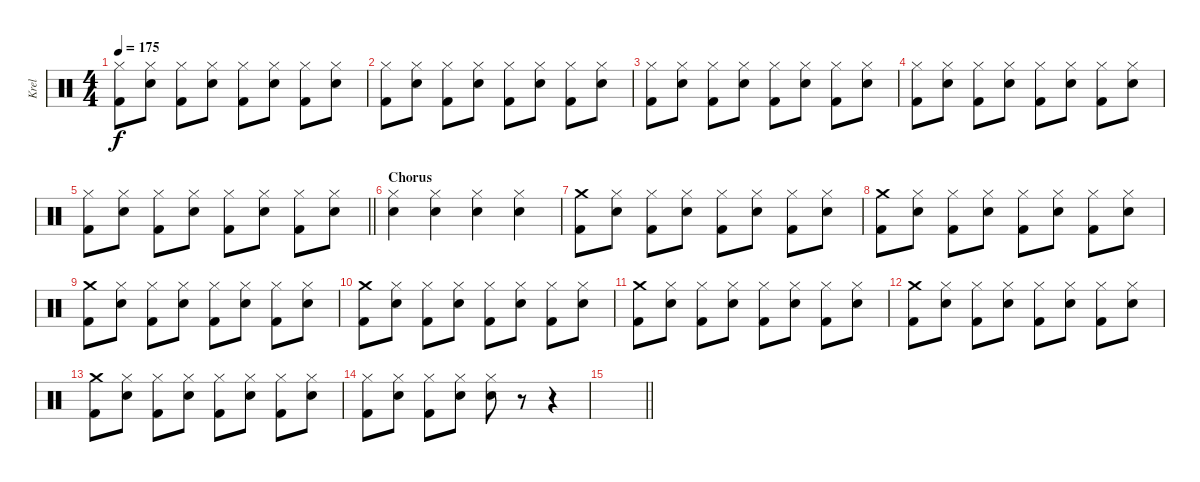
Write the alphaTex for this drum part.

\track ("Krel" "Krel") {instrument percussion}
\staff {score}
\articulation defaults
\ts (4 4)
\tempo 175
\clef neutral
\ks c
("Hi-Hat (closed)" "Kick (hit) 2").8{dy f} ("Hi-Hat (closed)" "Snare (hit) 2").8 ("Hi-Hat (closed)" "Kick (hit) 2").8 ("Hi-Hat (closed)" "Snare (hit) 2").8 ("Hi-Hat (closed)" "Kick (hit) 2").8 ("Hi-Hat (closed)" "Snare (hit) 2").8 ("Hi-Hat (closed)" "Kick (hit) 2").8 ("Hi-Hat (closed)" "Snare (hit) 2").8 |
("Hi-Hat (closed)" "Kick (hit) 2").8 ("Hi-Hat (closed)" "Snare (hit) 2").8 ("Hi-Hat (closed)" "Kick (hit) 2").8 ("Hi-Hat (closed)" "Snare (hit) 2").8 ("Hi-Hat (closed)" "Kick (hit) 2").8 ("Hi-Hat (closed)" "Snare (hit) 2").8 ("Hi-Hat (closed)" "Kick (hit) 2").8 ("Hi-Hat (closed)" "Snare (hit) 2").8 |
("Hi-Hat (closed)" "Kick (hit) 2").8 ("Hi-Hat (closed)" "Snare (hit) 2").8 ("Hi-Hat (closed)" "Kick (hit) 2").8 ("Hi-Hat (closed)" "Snare (hit) 2").8 ("Hi-Hat (closed)" "Kick (hit) 2").8 ("Hi-Hat (closed)" "Snare (hit) 2").8 ("Hi-Hat (closed)" "Kick (hit) 2").8 ("Hi-Hat (closed)" "Snare (hit) 2").8 |
("Hi-Hat (closed)" "Kick (hit) 2").8 ("Hi-Hat (closed)" "Snare (hit) 2").8 ("Hi-Hat (closed)" "Kick (hit) 2").8 ("Hi-Hat (closed)" "Snare (hit) 2").8 ("Hi-Hat (closed)" "Kick (hit) 2").8 ("Hi-Hat (closed)" "Snare (hit) 2").8 ("Hi-Hat (closed)" "Kick (hit) 2").8 ("Hi-Hat (closed)" "Snare (hit) 2").8 |
\barLineRight lightlight
("Hi-Hat (closed)" "Kick (hit) 2").8 ("Hi-Hat (closed)" "Snare (hit) 2").8 ("Hi-Hat (closed)" "Kick (hit) 2").8 ("Hi-Hat (closed)" "Snare (hit) 2").8 ("Hi-Hat (closed)" "Kick (hit) 2").8 ("Hi-Hat (closed)" "Snare (hit) 2").8 ("Hi-Hat (closed)" "Kick (hit) 2").8 ("Hi-Hat (closed)" "Snare (hit) 2").8 |
\section ("" "Chorus")
("Hi-Hat (closed)" "Snare (hit) 2").4 ("Hi-Hat (closed)" "Snare (hit) 2").4 ("Hi-Hat (closed)" "Snare (hit) 2").4 ("Hi-Hat (closed)" "Snare (hit) 2").4 |
("Crash medium (hit)" "Kick (hit) 2").8 ("Hi-Hat (closed)" "Snare (hit) 2").8 ("Hi-Hat (closed)" "Kick (hit) 2").8 ("Hi-Hat (closed)" "Snare (hit) 2").8 ("Hi-Hat (closed)" "Kick (hit) 2").8 ("Hi-Hat (closed)" "Snare (hit) 2").8 ("Hi-Hat (closed)" "Kick (hit) 2").8 ("Hi-Hat (closed)" "Snare (hit) 2").8 |
("Crash medium (hit)" "Kick (hit) 2").8 ("Hi-Hat (closed)" "Snare (hit) 2").8 ("Hi-Hat (closed)" "Kick (hit) 2").8 ("Hi-Hat (closed)" "Snare (hit) 2").8 ("Hi-Hat (closed)" "Kick (hit) 2").8 ("Hi-Hat (closed)" "Snare (hit) 2").8 ("Hi-Hat (closed)" "Kick (hit) 2").8 ("Hi-Hat (closed)" "Snare (hit) 2").8 |
("Crash medium (hit)" "Kick (hit) 2").8 ("Hi-Hat (closed)" "Snare (hit) 2").8 ("Hi-Hat (closed)" "Kick (hit) 2").8 ("Hi-Hat (closed)" "Snare (hit) 2").8 ("Hi-Hat (closed)" "Kick (hit) 2").8 ("Hi-Hat (closed)" "Snare (hit) 2").8 ("Hi-Hat (closed)" "Kick (hit) 2").8 ("Hi-Hat (closed)" "Snare (hit) 2").8 |
("Crash medium (hit)" "Kick (hit) 2").8 ("Hi-Hat (closed)" "Snare (hit) 2").8 ("Hi-Hat (closed)" "Kick (hit) 2").8 ("Hi-Hat (closed)" "Snare (hit) 2").8 ("Hi-Hat (closed)" "Kick (hit) 2").8 ("Hi-Hat (closed)" "Snare (hit) 2").8 ("Hi-Hat (closed)" "Kick (hit) 2").8 ("Hi-Hat (closed)" "Snare (hit) 2").8 |
("Crash medium (hit)" "Kick (hit) 2").8 ("Hi-Hat (closed)" "Snare (hit) 2").8 ("Hi-Hat (closed)" "Kick (hit) 2").8 ("Hi-Hat (closed)" "Snare (hit) 2").8 ("Hi-Hat (closed)" "Kick (hit) 2").8 ("Hi-Hat (closed)" "Snare (hit) 2").8 ("Hi-Hat (closed)" "Kick (hit) 2").8 ("Hi-Hat (closed)" "Snare (hit) 2").8 |
("Crash medium (hit)" "Kick (hit) 2").8 ("Hi-Hat (closed)" "Snare (hit) 2").8 ("Hi-Hat (closed)" "Kick (hit) 2").8 ("Hi-Hat (closed)" "Snare (hit) 2").8 ("Hi-Hat (closed)" "Kick (hit) 2").8 ("Hi-Hat (closed)" "Snare (hit) 2").8 ("Hi-Hat (closed)" "Kick (hit) 2").8 ("Hi-Hat (closed)" "Snare (hit) 2").8 |
("Crash medium (hit)" "Kick (hit) 2").8 ("Hi-Hat (closed)" "Snare (hit) 2").8 ("Hi-Hat (closed)" "Kick (hit) 2").8 ("Hi-Hat (closed)" "Snare (hit) 2").8 ("Hi-Hat (closed)" "Kick (hit) 2").8 ("Hi-Hat (closed)" "Snare (hit) 2").8 ("Hi-Hat (closed)" "Kick (hit) 2").8 ("Hi-Hat (closed)" "Snare (hit) 2").8 |
("Hi-Hat (closed)" "Kick (hit) 2").8 ("Hi-Hat (closed)" "Snare (hit) 2").8 ("Hi-Hat (closed)" "Kick (hit) 2").8 ("Hi-Hat (closed)" "Snare (hit) 2").8 ("Hi-Hat (closed)" "Snare (hit) 2").8 r.8 r.4 |
\barLineRight lightlight
